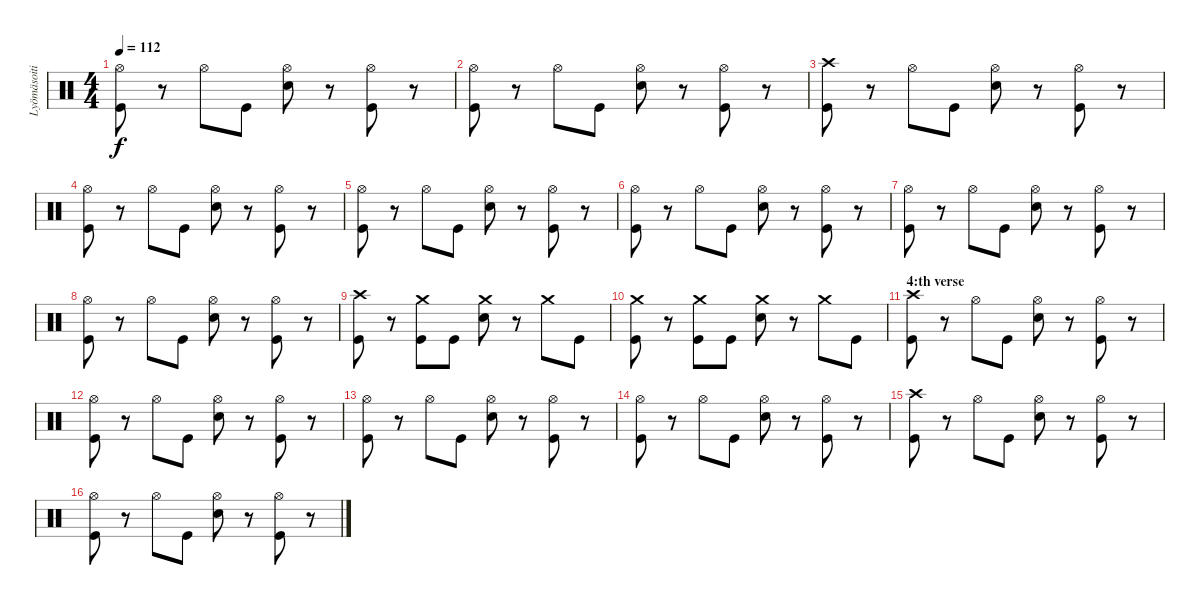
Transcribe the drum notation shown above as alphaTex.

\track ("Lyömäsoitin" "Lyömäsoiti") {instrument percussion}
\staff {score}
\articulation defaults
\ts (4 4)
\tempo 112
\clef neutral
\ks c
("Hi-Hat (open)" "Kick (hit)").8{dy f} r.8 "Hi-Hat (open)".8 "Kick (hit)".8 ("Hi-Hat (open)" "Snare (hit) 2").8 r.8 ("Hi-Hat (open)" "Kick (hit)").8 r.8 |
("Hi-Hat (open)" "Kick (hit)").8 r.8 "Hi-Hat (open)".8 "Kick (hit)".8 ("Hi-Hat (open)" "Snare (hit) 2").8 r.8 ("Hi-Hat (open)" "Kick (hit)").8 r.8 |
("Crash high (hit)" "Kick (hit)").8 r.8 "Hi-Hat (open)".8 "Kick (hit)".8 ("Hi-Hat (open)" "Snare (hit) 2").8 r.8 ("Hi-Hat (open)" "Kick (hit)").8 r.8 |
("Hi-Hat (open)" "Kick (hit)").8 r.8 "Hi-Hat (open)".8 "Kick (hit)".8 ("Hi-Hat (open)" "Snare (hit) 2").8 r.8 ("Hi-Hat (open)" "Kick (hit)").8 r.8 |
("Hi-Hat (open)" "Kick (hit)").8 r.8 "Hi-Hat (open)".8 "Kick (hit)".8 ("Hi-Hat (open)" "Snare (hit) 2").8 r.8 ("Hi-Hat (open)" "Kick (hit)").8 r.8 |
("Hi-Hat (open)" "Kick (hit)").8 r.8 "Hi-Hat (open)".8 "Kick (hit)".8 ("Hi-Hat (open)" "Snare (hit) 2").8 r.8 ("Hi-Hat (open)" "Kick (hit)").8 r.8 |
("Hi-Hat (open)" "Kick (hit)").8 r.8 "Hi-Hat (open)".8 "Kick (hit)".8 ("Hi-Hat (open)" "Snare (hit) 2").8 r.8 ("Hi-Hat (open)" "Kick (hit)").8 r.8 |
("Hi-Hat (open)" "Kick (hit)").8 r.8 "Hi-Hat (open)".8 "Kick (hit)".8 ("Hi-Hat (open)" "Snare (hit) 2").8 r.8 ("Hi-Hat (open)" "Kick (hit)").8 r.8 |
("Crash high (hit)" "Kick (hit)").8 r.8 ("Crash medium (hit)" "Kick (hit)").8 "Kick (hit)".8 ("Crash medium (hit)" "Snare (hit) 2").8 r.8 "Crash medium (hit)".8 "Kick (hit)".8 |
("Crash medium (hit)" "Kick (hit)").8 r.8 ("Crash medium (hit)" "Kick (hit)").8 "Kick (hit)".8 ("Crash medium (hit)" "Snare (hit) 2").8 r.8 "Crash medium (hit)".8 "Kick (hit)".8 |
\section ("" "4:th verse")
("Crash high (hit)" "Kick (hit)").8 r.8 "Hi-Hat (open)".8 "Kick (hit)".8 ("Hi-Hat (open)" "Snare (hit) 2").8 r.8 ("Hi-Hat (open)" "Kick (hit)").8 r.8 |
("Hi-Hat (open)" "Kick (hit)").8 r.8 "Hi-Hat (open)".8 "Kick (hit)".8 ("Hi-Hat (open)" "Snare (hit) 2").8 r.8 ("Hi-Hat (open)" "Kick (hit)").8 r.8 |
("Hi-Hat (open)" "Kick (hit)").8 r.8 "Hi-Hat (open)".8 "Kick (hit)".8 ("Hi-Hat (open)" "Snare (hit) 2").8 r.8 ("Hi-Hat (open)" "Kick (hit)").8 r.8 |
("Hi-Hat (open)" "Kick (hit)").8 r.8 "Hi-Hat (open)".8 "Kick (hit)".8 ("Hi-Hat (open)" "Snare (hit) 2").8 r.8 ("Hi-Hat (open)" "Kick (hit)").8 r.8 |
("Crash high (hit)" "Kick (hit)").8 r.8 "Hi-Hat (open)".8 "Kick (hit)".8 ("Hi-Hat (open)" "Snare (hit) 2").8 r.8 ("Hi-Hat (open)" "Kick (hit)").8 r.8 |
("Hi-Hat (open)" "Kick (hit)").8 r.8 "Hi-Hat (open)".8 "Kick (hit)".8 ("Hi-Hat (open)" "Snare (hit) 2").8 r.8 ("Hi-Hat (open)" "Kick (hit)").8 r.8
